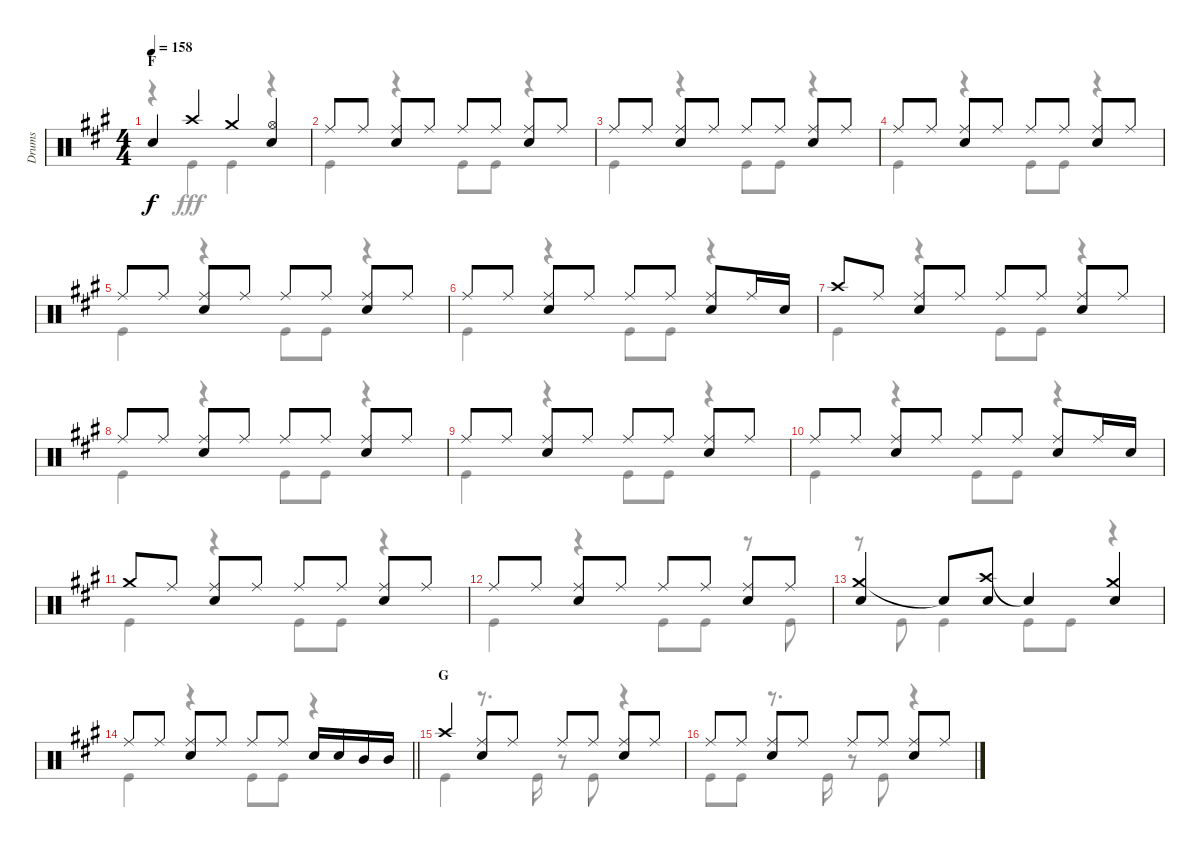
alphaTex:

\track ("Drums" "Drums") {instrument percussion}
\staff {score}
\articulation defaults
\voice
\ts (4 4)
\section ("" "F")
\tempo 158
\clef neutral
\ks a "Snare (hit) 2".4{dy f} "Crash high (hit)".4 "Crash medium (hit)".4
("Hi-Hat (open)" "Snare (hit) 2").4 |
"Ride (middle)".8 "Ride (middle)".8 ("Ride (middle)" "Snare (hit) 2").8 "Ride (middle)".8 "Ride (middle)".8 "Ride (middle)".8 ("Ride (middle)" "Snare (hit) 2").8 "Ride (middle)".8 |
"Ride (middle)".8 "Ride (middle)".8 ("Ride (middle)" "Snare (hit) 2").8 "Ride (middle)".8 "Ride (middle)".8 "Ride (middle)".8 ("Ride (middle)" "Snare (hit) 2").8 "Ride (middle)".8 |
"Ride (middle)".8 "Ride (middle)".8 ("Ride (middle)" "Snare (hit) 2").8 "Ride (middle)".8 "Ride (middle)".8 "Ride (middle)".8 ("Ride (middle)" "Snare (hit) 2").8 "Ride (middle)".8 |
"Ride (middle)".8 "Ride (middle)".8 ("Ride (middle)" "Snare (hit) 2").8 "Ride (middle)".8 "Ride (middle)".8 "Ride (middle)".8 ("Ride (middle)" "Snare (hit) 2").8 "Ride (middle)".8 |
"Ride (middle)".8 "Ride (middle)".8 ("Ride (middle)" "Snare (hit) 2").8 "Ride (middle)".8 "Ride (middle)".8 "Ride (middle)".8 ("Ride (middle)" "Snare (hit) 2").8 "Ride (middle)".16 "Snare (hit) 2".16 |
"Crash high (hit)".8 "Ride (middle)".8 ("Ride (middle)" "Snare (hit) 2").8 "Ride (middle)".8 "Ride (middle)".8 "Ride (middle)".8 ("Ride (middle)" "Snare (hit) 2").8 "Ride (middle)".8 |
"Ride (middle)".8 "Ride (middle)".8 ("Ride (middle)" "Snare (hit) 2").8 "Ride (middle)".8 "Ride (middle)".8 "Ride (middle)".8 ("Ride (middle)" "Snare (hit) 2").8 "Ride (middle)".8 |
"Ride (middle)".8 "Ride (middle)".8 ("Ride (middle)" "Snare (hit) 2").8 "Ride (middle)".8 "Ride (middle)".8 "Ride (middle)".8 ("Ride (middle)" "Snare (hit) 2").8 "Ride (middle)".8 |
"Ride (middle)".8 "Ride (middle)".8 ("Ride (middle)" "Snare (hit) 2").8 "Ride (middle)".8 "Ride (middle)".8 "Ride (middle)".8 ("Ride (middle)" "Snare (hit) 2").8 "Ride (middle)".16 "Snare (hit) 2".16 |
"Crash medium (hit)".8 "Ride (middle)".8 ("Ride (middle)" "Snare (hit) 2").8 "Ride (middle)".8 "Ride (middle)".8 "Ride (middle)".8 ("Ride (middle)" "Snare (hit) 2").8 "Ride (middle)".8 |
"Ride (middle)".8 "Ride (middle)".8 ("Ride (middle)" "Snare (hit) 2").8 "Ride (middle)".8 "Ride (middle)".8 "Ride (middle)".8 ("Ride (middle)" "Snare (hit) 2").8 "Ride (middle)".8 |
("Crash medium (hit)" "Snare (hit) 2").4 "Snare (hit)"{t}.8 ("Crash high (hit)" "Snare (hit) 2").8 "Snare (hit)"{t}.4 ("Crash medium (hit)" "Snare (hit) 2").4 |
\barLineRight lightlight "Ride (middle)".8 "Ride (middle)".8
("Ride (middle)" "Snare (hit) 2").8 "Ride (middle)".8 "Ride (middle)".8 "Ride (middle)".8 "Snare (hit) 2".16 "Snare (hit) 2".16 "Mid Tom (hit)".16 "Mid Tom (hit)".16 |
\section ("" "G")
"Crash high (hit)".4 ("Ride (middle)" "Snare (hit) 2").8 "Ride (middle)".8 "Ride (middle)".8 "Ride (middle)".8 ("Ride (middle)" "Snare (hit) 2").8 "Ride (middle)".8 |
"Ride (middle)".8 "Ride (middle)".8 ("Ride (middle)" "Snare (hit) 2").8 "Ride (middle)".8 "Ride (middle)".8 "Ride (middle)".8 ("Ride (middle)" "Snare (hit) 2").8 "Ride (middle)".8
\voice
\clef neutral
\ottava regular
\simile none
\ks a
r.4{dy fff} "Kick (hit)".4 "Kick (hit)".4 r.4 |
"Kick (hit)".4 r.4 "Kick (hit)".8 "Kick (hit)".8 r.4 |
"Kick (hit)".4 r.4 "Kick (hit)".8 "Kick (hit)".8 r.4 |
"Kick (hit)".4 r.4 "Kick (hit)".8 "Kick (hit)".8 r.4 |
"Kick (hit)".4 r.4 "Kick (hit)".8 "Kick (hit)".8 r.4 |
"Kick (hit)".4 r.4 "Kick (hit)".8 "Kick (hit)".8 r.4 |
"Kick (hit)".4 r.4 "Kick (hit)".8 "Kick (hit)".8 r.4 |
"Kick (hit)".4 r.4 "Kick (hit)".8 "Kick (hit)".8 r.4 |
"Kick (hit)".4 r.4 "Kick (hit)".8 "Kick (hit)".8 r.4 |
"Kick (hit)".4 r.4 "Kick (hit)".8 "Kick (hit)".8 r.4 |
"Kick (hit)".4 r.4 "Kick (hit)".8 "Kick (hit)".8 r.4 |
"Kick (hit)".4 r.4 "Kick (hit)".8 "Kick (hit)".8 r.8 "Kick (hit)".8 |
r.8 "Kick (hit)".8 "Kick (hit)".4 "Kick (hit)".8 "Kick (hit)".8 r.4 |
\barLineRight lightlight "Kick (hit)".4
r.4 "Kick (hit)".8 "Kick (hit)".8 r.4 |
"Kick (hit)".4 r.8{d} "Kick (hit)".16 r.8 "Kick (hit)".8 r.4 |
"Kick (hit)".8 "Kick (hit)".8 r.8{d} "Kick (hit)".16 r.8 "Kick (hit)".8 r.4
